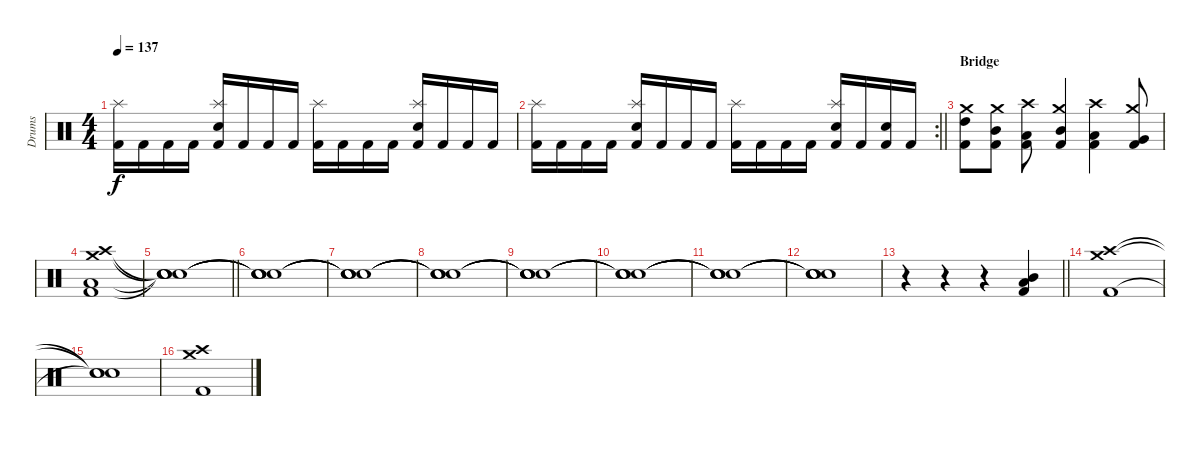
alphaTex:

\track ("Drums" "Drums") {instrument percussion}
\staff {score}
\articulation defaults
\ts (4 4)
\tempo 137
\clef neutral
\ks c
("Kick (hit) 2" "Splash (hit)").16{dy f} "Kick (hit) 2".16 "Kick (hit) 2".16 "Kick (hit) 2".16 ("Kick (hit) 2" "Snare (hit) 2" "Splash (hit)").16 "Kick (hit) 2".16 "Kick (hit) 2".16 "Kick (hit) 2".16 ("Kick (hit) 2" "Splash (hit)").16 "Kick (hit) 2".16 "Kick (hit) 2".16 "Kick (hit) 2".16 ("Kick (hit) 2" "Snare (hit) 2" "Splash (hit)").16 "Kick (hit) 2".16 "Kick (hit) 2".16 "Kick (hit) 2".16 |
\rc 2
\barLineRight lightlight
("Kick (hit) 2" "Splash (hit)").16 "Kick (hit) 2".16 "Kick (hit) 2".16 "Kick (hit) 2".16 ("Kick (hit) 2" "Snare (hit) 2" "Splash (hit)").16 "Kick (hit) 2".16 "Kick (hit) 2".16 "Kick (hit) 2".16 ("Kick (hit) 2" "Splash (hit)").16 "Kick (hit) 2".16 "Kick (hit) 2".16 "Kick (hit) 2".16 ("Kick (hit) 2" "Snare (hit) 2" "Splash (hit)").16 "Kick (hit) 2".16 ("Kick (hit) 2" "Snare (hit) 2").16 "Kick (hit) 2".16 |
\section ("" "Bridge")
("Kick (hit) 2" "High Tom (hit)" "Crash medium (hit)").8 ("Kick (hit) 2" "Mid Tom (hit)" "Crash medium (hit)").8 ("Kick (hit) 2" "Low Tom (hit)" "Crash high (hit)").8 ("Kick (hit) 2" "Mid Tom (hit)" "Crash medium (hit)").4 ("Kick (hit) 2" "Low Tom (hit)" "Crash high (hit)").4 ("Kick (hit) 2" "Very Low Tom (hit)" "Crash medium (hit)").8 |
("Kick (hit) 2" "Low Floor Tom (hit)" "Crash high (hit)" "Crash medium (hit)").1 |
\barLineRight lightlight
("Snare (hit)"{t} "Snare (hit)"{t} "Snare (hit)"{t} "Snare (hit)"{t}).1 |
\section ("" "")
("Snare (hit)"{t} "Snare (hit)"{t} "Snare (hit)"{t} "Snare (hit)"{t}).1 |
("Snare (hit)"{t} "Snare (hit)"{t} "Snare (hit)"{t} "Snare (hit)"{t}).1 |
("Snare (hit)"{t} "Snare (hit)"{t} "Snare (hit)"{t} "Snare (hit)"{t}).1 |
("Snare (hit)"{t} "Snare (hit)"{t} "Snare (hit)"{t} "Snare (hit)"{t}).1 |
("Snare (hit)"{t} "Snare (hit)"{t} "Snare (hit)"{t} "Snare (hit)"{t}).1 |
("Snare (hit)"{t} "Snare (hit)"{t} "Snare (hit)"{t} "Snare (hit)"{t}).1 |
("Snare (hit)"{t} "Snare (hit)"{t} "Snare (hit)"{t} "Snare (hit)"{t}).1 |
\barLineRight lightlight
r.4 r.4 r.4 ("Kick (hit) 2" "Mid Tom (hit)" "Low Tom (hit)").4 |
\section ("" "")
("Kick (hit) 2" "Crash high (hit)" "Crash medium (hit)").1 |
("Snare (hit)"{t} "Snare (hit)"{t} "Snare (hit)"{t}).1 |
("Kick (hit) 2" "Crash high (hit)" "Crash medium (hit)").1
